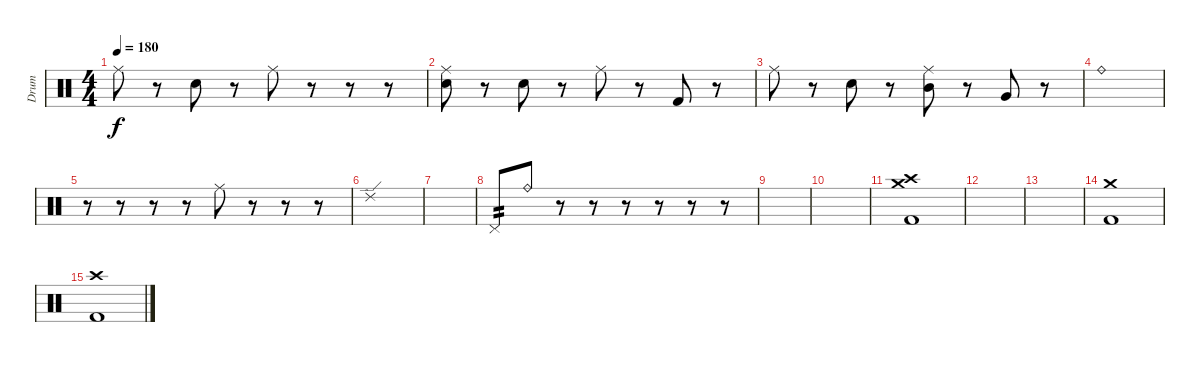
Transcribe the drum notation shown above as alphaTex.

\track ("Drum" "Drum") {instrument percussion}
\staff {score}
\articulation defaults
\ts (4 4)
\tempo 180
\clef neutral
\ks c "Ride (middle)".8{dy f}
r.8 "Snare (hit) 2".8 r.8 "Ride (middle)".8 r.8 r.8 r.8 |
("Ride (middle)" "Snare (hit) 2").8 r.8 "Snare (hit) 2".8 r.8 "Ride (middle)".8 r.8 "Kick (hit) 2".8 r.8 |
"Ride (middle)".8 r.8 "Snare (hit) 2".8 r.8 ("Ride (middle)" "Mid Tom (hit)").8 r.8 "Very Low Tom (hit)".8 r.8 |
"Ride (bell)".1 |
r.8 r.8 r.8 r.8 "Ride (middle)".8 r.8 r.8 r.8 |
"Ride (edge) 2".1 |
|
"Pedal Hi-Hat (hit)".8{tp 2} "Ride (bell)".8 r.8 r.8 r.8 r.8 r.8 r.8 |
|
|
("Crash medium (hit)" "Crash high (hit)" "Kick (hit) 2").1 |
|
|
("Crash medium (hit)" "Kick (hit) 2").1 |
("Crash high (hit)" "Kick (hit) 2").1
